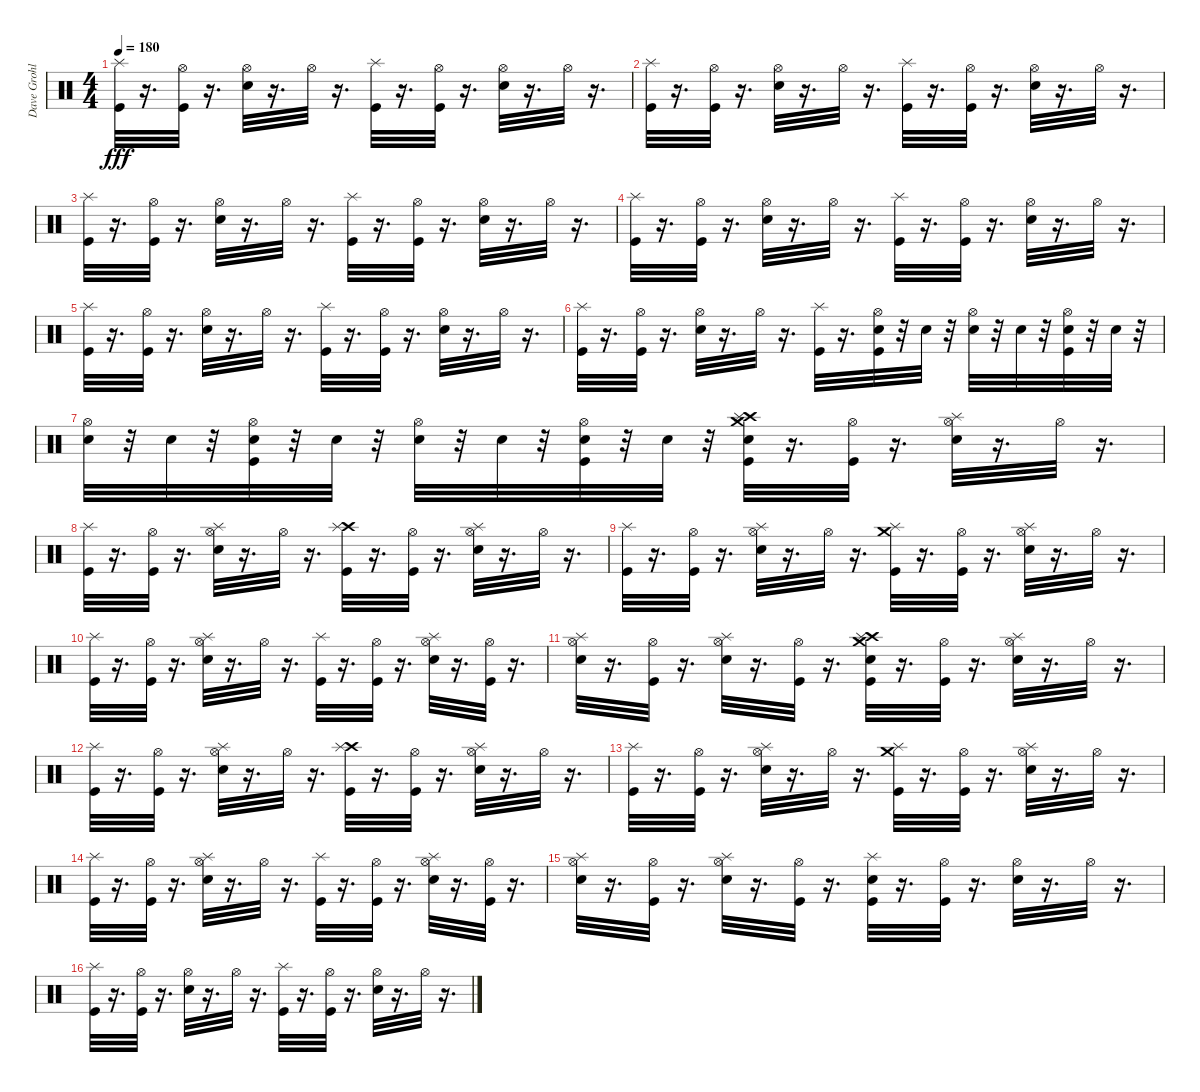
\track ("Dave Grohl - Drums" "Dave Grohl") {instrument percussion}
\staff {score}
\articulation defaults
\ts (4 4)
\tempo 180
\clef neutral
\ks c
("Splash (hit)" "Kick (hit)").32{dy fff} r.16{d} ("Hi-Hat (open)" "Kick (hit)").32 r.16{d} ("Hi-Hat (open)" "Snare (hit) 2").32 r.16{d} "Hi-Hat (open)".32 r.16{d} ("Splash (hit)" "Kick (hit)").32 r.16{d} ("Hi-Hat (open)" "Kick (hit)").32 r.16{d} ("Hi-Hat (open)" "Snare (hit) 2").32 r.16{d} "Hi-Hat (open)".32 r.16{d} |
("Splash (hit)" "Kick (hit)").32 r.16{d} ("Hi-Hat (open)" "Kick (hit)").32 r.16{d} ("Hi-Hat (open)" "Snare (hit) 2").32 r.16{d} "Hi-Hat (open)".32 r.16{d} ("Splash (hit)" "Kick (hit)").32 r.16{d} ("Hi-Hat (open)" "Kick (hit)").32 r.16{d} ("Hi-Hat (open)" "Snare (hit) 2").32 r.16{d} "Hi-Hat (open)".32 r.16{d} |
("Kick (hit)" "Splash (hit)").32 r.16{d} ("Hi-Hat (open)" "Kick (hit)").32 r.16{d} ("Hi-Hat (open)" "Snare (hit) 2").32 r.16{d} "Hi-Hat (open)".32 r.16{d} ("Kick (hit)" "Splash (hit)").32 r.16{d} ("Hi-Hat (open)" "Kick (hit)").32 r.16{d} ("Hi-Hat (open)" "Snare (hit) 2").32 r.16{d} "Hi-Hat (open)".32 r.16{d} |
("Splash (hit)" "Kick (hit)").32 r.16{d} ("Hi-Hat (open)" "Kick (hit)").32 r.16{d} ("Hi-Hat (open)" "Snare (hit) 2").32 r.16{d} "Hi-Hat (open)".32 r.16{d} ("Splash (hit)" "Kick (hit)").32 r.16{d} ("Hi-Hat (open)" "Kick (hit)").32 r.16{d} ("Hi-Hat (open)" "Snare (hit) 2").32 r.16{d} "Hi-Hat (open)".32 r.16{d} |
("Splash (hit)" "Kick (hit)").32 r.16{d} ("Hi-Hat (open)" "Kick (hit)").32 r.16{d} ("Hi-Hat (open)" "Snare (hit) 2").32 r.16{d} "Hi-Hat (open)".32 r.16{d} ("Splash (hit)" "Kick (hit)").32 r.16{d} ("Hi-Hat (open)" "Kick (hit)").32 r.16{d} ("Hi-Hat (open)" "Snare (hit) 2").32 r.16{d} "Hi-Hat (open)".32 r.16{d} |
("Splash (hit)" "Kick (hit)").32 r.16{d} ("Hi-Hat (open)" "Kick (hit)").32 r.16{d} ("Hi-Hat (open)" "Snare (hit) 2").32 r.16{d} "Hi-Hat (open)".32 r.16{d} ("Splash (hit)" "Kick (hit)").32 r.16{d} ("Snare (hit) 2" "Hi-Hat (open)" "Kick (hit)").32 r.32 "Snare (hit) 2".32 r.32 ("Hi-Hat (open)" "Snare (hit) 2").32 r.32 "Snare (hit) 2".32 r.32 ("Snare (hit) 2" "Hi-Hat (open)" "Kick (hit)").32 r.32 "Snare (hit) 2".32 r.32 |
("Hi-Hat (open)" "Snare (hit) 2").32 r.32 "Snare (hit) 2".32 r.32 ("Snare (hit) 2" "Hi-Hat (open)" "Kick (hit)").32 r.32 "Snare (hit) 2".32 r.32 ("Hi-Hat (open)" "Snare (hit) 2").32 r.32 "Snare (hit) 2".32 r.32 ("Snare (hit) 2" "Hi-Hat (open)" "Kick (hit)").32 r.32 "Snare (hit) 2".32 r.32 ("Crash high (hit)" "Crash medium (hit)" "Splash (hit)" "Snare (hit) 2" "Kick (hit)").32 r.16{d} ("Hi-Hat (open)" "Kick (hit)").32 r.16{d} ("Splash (hit)" "Hi-Hat (open)" "Snare (hit) 2").32 r.16{d} "Hi-Hat (open)".32 r.16{d} |
("Splash (hit)" "Kick (hit)").32 r.16{d} ("Hi-Hat (open)" "Kick (hit)").32 r.16{d} ("Splash (hit)" "Hi-Hat (open)" "Snare (hit) 2").32 r.16{d} "Hi-Hat (open)".32 r.16{d} ("Crash high (hit)" "Splash (hit)" "Kick (hit)").32 r.16{d} ("Hi-Hat (open)" "Kick (hit)").32 r.16{d} ("Splash (hit)" "Hi-Hat (open)" "Snare (hit) 2").32 r.16{d} "Hi-Hat (open)".32 r.16{d} |
("Splash (hit)" "Kick (hit)").32 r.16{d} ("Hi-Hat (open)" "Kick (hit)").32 r.16{d} ("Splash (hit)" "Hi-Hat (open)" "Snare (hit) 2").32 r.16{d} "Hi-Hat (open)".32 r.16{d} ("Crash medium (hit)" "Splash (hit)" "Kick (hit)").32 r.16{d} ("Hi-Hat (open)" "Kick (hit)").32 r.16{d} ("Splash (hit)" "Hi-Hat (open)" "Snare (hit) 2").32 r.16{d} "Hi-Hat (open)".32 r.16{d} |
("Splash (hit)" "Kick (hit)").32 r.16{d} ("Hi-Hat (open)" "Kick (hit)").32 r.16{d} ("Splash (hit)" "Hi-Hat (open)" "Snare (hit) 2").32 r.16{d} "Hi-Hat (open)".32 r.16{d} ("Splash (hit)" "Kick (hit)").32 r.16{d} ("Hi-Hat (open)" "Kick (hit)").32 r.16{d} ("Splash (hit)" "Hi-Hat (open)" "Snare (hit) 2").32 r.16{d} ("Hi-Hat (open)" "Kick (hit)").32 r.16{d} |
("Splash (hit)" "Hi-Hat (open)" "Snare (hit) 2").32 r.16{d} ("Hi-Hat (open)" "Kick (hit)").32 r.16{d} ("Splash (hit)" "Hi-Hat (open)" "Snare (hit) 2").32 r.16{d} ("Hi-Hat (open)" "Kick (hit)").32 r.16{d} ("Crash high (hit)" "Crash medium (hit)" "Splash (hit)" "Snare (hit) 2" "Kick (hit)").32 r.16{d} ("Hi-Hat (open)" "Kick (hit)").32 r.16{d} ("Splash (hit)" "Hi-Hat (open)" "Snare (hit) 2").32 r.16{d} "Hi-Hat (open)".32 r.16{d} |
("Splash (hit)" "Kick (hit)").32 r.16{d} ("Hi-Hat (open)" "Kick (hit)").32 r.16{d} ("Splash (hit)" "Hi-Hat (open)" "Snare (hit) 2").32 r.16{d} "Hi-Hat (open)".32 r.16{d} ("Crash high (hit)" "Splash (hit)" "Kick (hit)").32 r.16{d} ("Hi-Hat (open)" "Kick (hit)").32 r.16{d} ("Splash (hit)" "Hi-Hat (open)" "Snare (hit) 2").32 r.16{d} "Hi-Hat (open)".32 r.16{d} |
("Splash (hit)" "Kick (hit)").32 r.16{d} ("Hi-Hat (open)" "Kick (hit)").32 r.16{d} ("Splash (hit)" "Hi-Hat (open)" "Snare (hit) 2").32 r.16{d} "Hi-Hat (open)".32 r.16{d} ("Crash medium (hit)" "Splash (hit)" "Kick (hit)").32 r.16{d} ("Hi-Hat (open)" "Kick (hit)").32 r.16{d} ("Splash (hit)" "Hi-Hat (open)" "Snare (hit) 2").32 r.16{d} "Hi-Hat (open)".32 r.16{d} |
("Splash (hit)" "Kick (hit)").32 r.16{d} ("Hi-Hat (open)" "Kick (hit)").32 r.16{d} ("Splash (hit)" "Hi-Hat (open)" "Snare (hit) 2").32 r.16{d} "Hi-Hat (open)".32 r.16{d} ("Splash (hit)" "Kick (hit)").32 r.16{d} ("Hi-Hat (open)" "Kick (hit)").32 r.16{d} ("Splash (hit)" "Hi-Hat (open)" "Snare (hit) 2").32 r.16{d} ("Hi-Hat (open)" "Kick (hit)").32 r.16{d} |
("Splash (hit)" "Hi-Hat (open)" "Snare (hit) 2").32 r.16{d} ("Hi-Hat (open)" "Kick (hit)").32 r.16{d} ("Splash (hit)" "Hi-Hat (open)" "Snare (hit) 2").32 r.16{d} ("Hi-Hat (open)" "Kick (hit)").32 r.16{d} ("Splash (hit)" "Snare (hit) 2" "Kick (hit)").32 r.16{d} ("Hi-Hat (open)" "Kick (hit)").32 r.16{d} ("Hi-Hat (open)" "Snare (hit) 2").32 r.16{d} "Hi-Hat (open)".32 r.16{d} |
("Splash (hit)" "Kick (hit)").32 r.16{d} ("Hi-Hat (open)" "Kick (hit)").32 r.16{d} ("Hi-Hat (open)" "Snare (hit) 2").32 r.16{d} "Hi-Hat (open)".32 r.16{d} ("Splash (hit)" "Kick (hit)").32 r.16{d} ("Hi-Hat (open)" "Kick (hit)").32 r.16{d} ("Hi-Hat (open)" "Snare (hit) 2").32 r.16{d} "Hi-Hat (open)".32 r.16{d}
